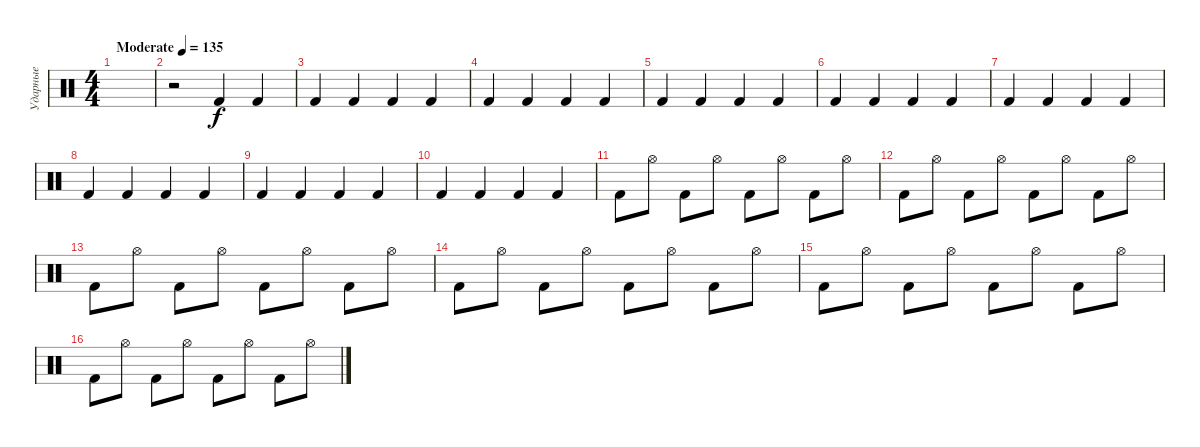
\track ("Ударные" "Ударные") {instrument percussion}
\staff {score}
\articulation defaults
\ts (4 4)
\tempo (135 "Moderate")
\clef neutral
\ks c
|
r.2 "Kick (hit) 2".4 "Kick (hit) 2".4 |
"Kick (hit) 2".4 "Kick (hit) 2".4 "Kick (hit) 2".4 "Kick (hit) 2".4 |
"Kick (hit) 2".4 "Kick (hit) 2".4 "Kick (hit) 2".4 "Kick (hit) 2".4 |
"Kick (hit) 2".4 "Kick (hit) 2".4 "Kick (hit) 2".4 "Kick (hit) 2".4 |
"Kick (hit) 2".4 "Kick (hit) 2".4 "Kick (hit) 2".4 "Kick (hit) 2".4 |
"Kick (hit) 2".4 "Kick (hit) 2".4 "Kick (hit) 2".4 "Kick (hit) 2".4 |
"Kick (hit) 2".4 "Kick (hit) 2".4 "Kick (hit) 2".4 "Kick (hit) 2".4 |
"Kick (hit) 2".4 "Kick (hit) 2".4 "Kick (hit) 2".4 "Kick (hit) 2".4 |
"Kick (hit) 2".4 "Kick (hit) 2".4 "Kick (hit) 2".4 "Kick (hit) 2".4 |
"Kick (hit) 2".8 "Hi-Hat (open)".8 "Kick (hit) 2".8 "Hi-Hat (open)".8 "Kick (hit) 2".8 "Hi-Hat (open)".8 "Kick (hit) 2".8 "Hi-Hat (open)".8 |
"Kick (hit) 2".8 "Hi-Hat (open)".8 "Kick (hit) 2".8 "Hi-Hat (open)".8 "Kick (hit) 2".8 "Hi-Hat (open)".8 "Kick (hit) 2".8 "Hi-Hat (open)".8 |
"Kick (hit) 2".8 "Hi-Hat (open)".8 "Kick (hit) 2".8 "Hi-Hat (open)".8 "Kick (hit) 2".8 "Hi-Hat (open)".8 "Kick (hit) 2".8 "Hi-Hat (open)".8 |
"Kick (hit) 2".8 "Hi-Hat (open)".8 "Kick (hit) 2".8 "Hi-Hat (open)".8 "Kick (hit) 2".8 "Hi-Hat (open)".8 "Kick (hit) 2".8 "Hi-Hat (open)".8 |
"Kick (hit) 2".8 "Hi-Hat (open)".8 "Kick (hit) 2".8 "Hi-Hat (open)".8 "Kick (hit) 2".8 "Hi-Hat (open)".8 "Kick (hit) 2".8 "Hi-Hat (open)".8 |
"Kick (hit) 2".8 "Hi-Hat (open)".8 "Kick (hit) 2".8 "Hi-Hat (open)".8 "Kick (hit) 2".8 "Hi-Hat (open)".8 "Kick (hit) 2".8 "Hi-Hat (open)".8
